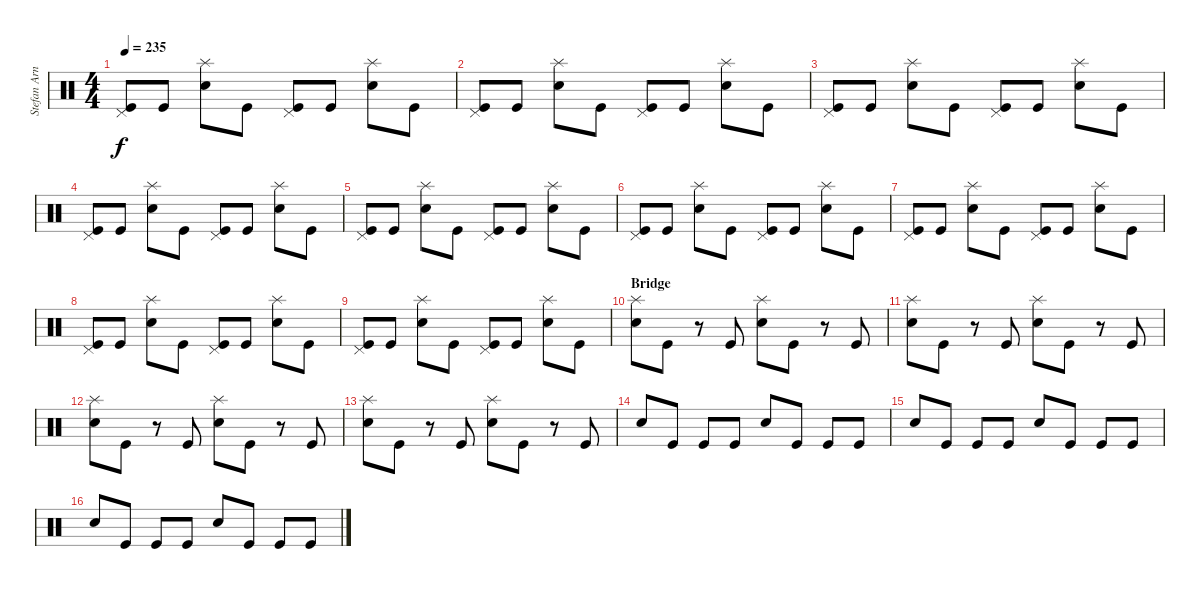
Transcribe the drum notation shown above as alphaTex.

\track ("Stefan Arnold" "Stefan Arn") {instrument percussion}
\staff {score}
\articulation defaults
\ts (4 4)
\tempo 235
\clef neutral
\ks c
("Kick (hit)" "Pedal Hi-Hat (hit)").8{dy f} "Kick (hit)".8 ("Electric Snare (hit)" "Splash (hit)").8 "Kick (hit)".8 ("Kick (hit)" "Pedal Hi-Hat (hit)").8 "Kick (hit)".8 ("Electric Snare (hit)" "Splash (hit)").8 "Kick (hit)".8 |
("Kick (hit)" "Pedal Hi-Hat (hit)").8 "Kick (hit)".8 ("Electric Snare (hit)" "Splash (hit)").8 "Kick (hit)".8 ("Kick (hit)" "Pedal Hi-Hat (hit)").8 "Kick (hit)".8 ("Electric Snare (hit)" "Splash (hit)").8 "Kick (hit)".8 |
("Kick (hit)" "Pedal Hi-Hat (hit)").8 "Kick (hit)".8 ("Electric Snare (hit)" "Splash (hit)").8 "Kick (hit)".8 ("Kick (hit)" "Pedal Hi-Hat (hit)").8 "Kick (hit)".8 ("Electric Snare (hit)" "Splash (hit)").8 "Kick (hit)".8 |
("Kick (hit)" "Pedal Hi-Hat (hit)").8 "Kick (hit)".8 ("Electric Snare (hit)" "Splash (hit)").8 "Kick (hit)".8 ("Kick (hit)" "Pedal Hi-Hat (hit)").8 "Kick (hit)".8 ("Electric Snare (hit)" "Splash (hit)").8 "Kick (hit)".8 |
("Kick (hit)" "Pedal Hi-Hat (hit)").8 "Kick (hit)".8 ("Electric Snare (hit)" "Splash (hit)").8 "Kick (hit)".8 ("Kick (hit)" "Pedal Hi-Hat (hit)").8 "Kick (hit)".8 ("Electric Snare (hit)" "Splash (hit)").8 "Kick (hit)".8 |
("Kick (hit)" "Pedal Hi-Hat (hit)").8 "Kick (hit)".8 ("Electric Snare (hit)" "Splash (hit)").8 "Kick (hit)".8 ("Kick (hit)" "Pedal Hi-Hat (hit)").8 "Kick (hit)".8 ("Electric Snare (hit)" "Splash (hit)").8 "Kick (hit)".8 |
("Kick (hit)" "Pedal Hi-Hat (hit)").8 "Kick (hit)".8 ("Electric Snare (hit)" "Splash (hit)").8 "Kick (hit)".8 ("Kick (hit)" "Pedal Hi-Hat (hit)").8 "Kick (hit)".8 ("Electric Snare (hit)" "Splash (hit)").8 "Kick (hit)".8 |
("Kick (hit)" "Pedal Hi-Hat (hit)").8 "Kick (hit)".8 ("Electric Snare (hit)" "Splash (hit)").8 "Kick (hit)".8 ("Kick (hit)" "Pedal Hi-Hat (hit)").8 "Kick (hit)".8 ("Electric Snare (hit)" "Splash (hit)").8 "Kick (hit)".8 |
("Kick (hit)" "Pedal Hi-Hat (hit)").8 "Kick (hit)".8 ("Electric Snare (hit)" "Splash (hit)").8 "Kick (hit)".8 ("Kick (hit)" "Pedal Hi-Hat (hit)").8 "Kick (hit)".8 ("Electric Snare (hit)" "Splash (hit)").8 "Kick (hit)".8 |
\section ("" "Bridge")
("Electric Snare (hit)" "Splash (hit)").8 "Kick (hit)".8 r.8 "Kick (hit)".8 ("Electric Snare (hit)" "Splash (hit)").8 "Kick (hit)".8 r.8 "Kick (hit)".8 |
("Electric Snare (hit)" "Splash (hit)").8 "Kick (hit)".8 r.8 "Kick (hit)".8 ("Electric Snare (hit)" "Splash (hit)").8 "Kick (hit)".8 r.8 "Kick (hit)".8 |
("Electric Snare (hit)" "Splash (hit)").8 "Kick (hit)".8 r.8 "Kick (hit)".8 ("Electric Snare (hit)" "Splash (hit)").8 "Kick (hit)".8 r.8 "Kick (hit)".8 |
("Electric Snare (hit)" "Splash (hit)").8 "Kick (hit)".8 r.8 "Kick (hit)".8 ("Electric Snare (hit)" "Splash (hit)").8 "Kick (hit)".8 r.8 "Kick (hit)".8 |
"Electric Snare (hit)".8 "Kick (hit)".8 "Kick (hit)".8 "Kick (hit)".8 "Electric Snare (hit)".8 "Kick (hit)".8 "Kick (hit)".8 "Kick (hit)".8 |
"Electric Snare (hit)".8 "Kick (hit)".8 "Kick (hit)".8 "Kick (hit)".8 "Electric Snare (hit)".8 "Kick (hit)".8 "Kick (hit)".8 "Kick (hit)".8 |
"Electric Snare (hit)".8 "Kick (hit)".8 "Kick (hit)".8 "Kick (hit)".8 "Electric Snare (hit)".8 "Kick (hit)".8 "Kick (hit)".8 "Kick (hit)".8
